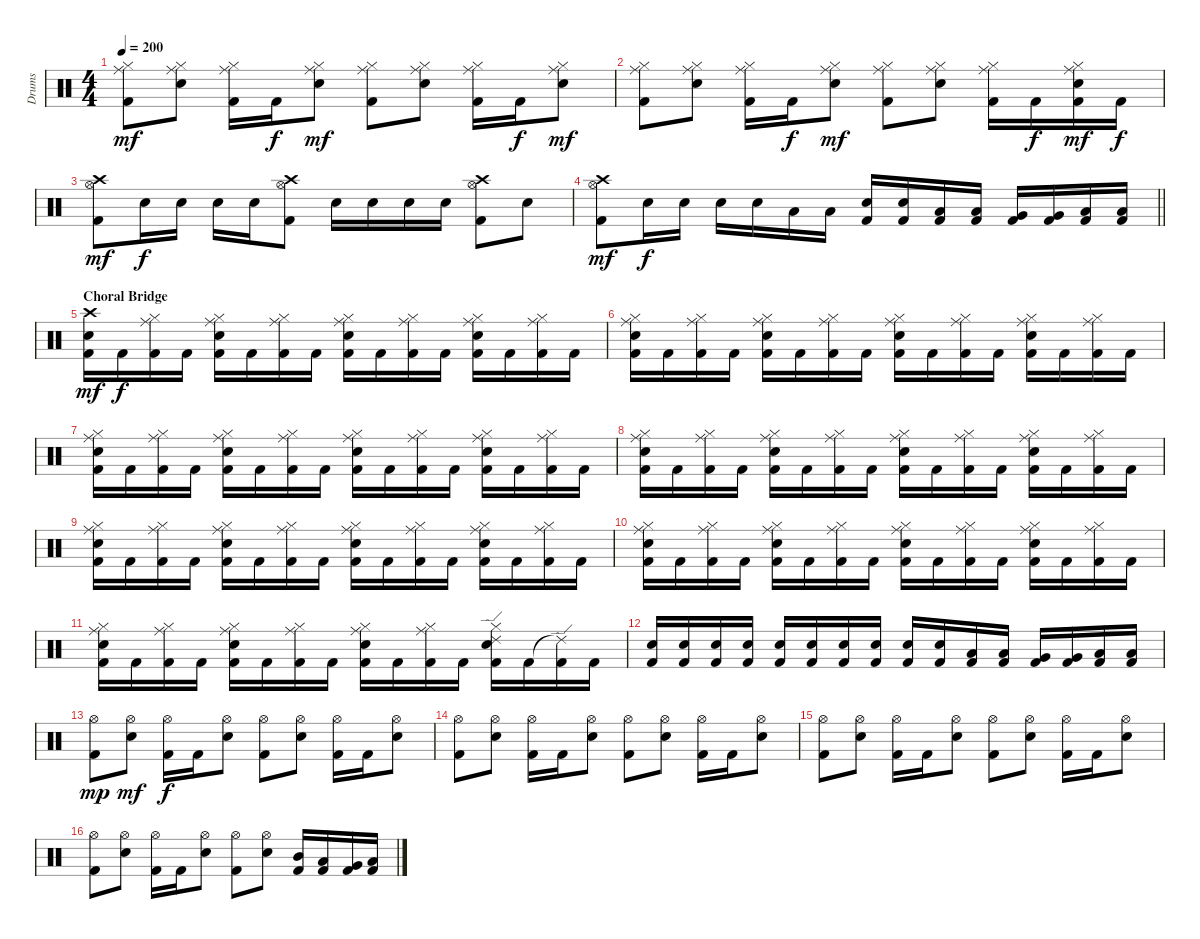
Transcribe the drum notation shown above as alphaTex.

\track ("Drums" "Drums") {instrument percussion}
\staff {score}
\articulation defaults
\ts (4 4)
\tempo 200
\clef neutral
\ks c
("Hi-Hat (closed)" "Ride (middle)" "Kick (hit) 2").8{dy mf} ("Hi-Hat (closed)" "Ride (middle)" "Snare (hit) 2").8 ("Hi-Hat (closed)" "Ride (middle)" "Kick (hit) 2").16 "Kick (hit) 2".16{dy f} ("Hi-Hat (closed)" "Ride (middle)" "Snare (hit) 2").8{dy mf} ("Hi-Hat (closed)" "Ride (middle)" "Kick (hit) 2").8 ("Hi-Hat (closed)" "Ride (middle)" "Snare (hit) 2").8 ("Hi-Hat (closed)" "Ride (middle)" "Kick (hit) 2").16 "Kick (hit) 2".16{dy f} ("Hi-Hat (closed)" "Ride (middle)" "Snare (hit) 2").8{dy mf} |
("Hi-Hat (closed)" "Ride (middle)" "Kick (hit) 2").8 ("Hi-Hat (closed)" "Ride (middle)" "Snare (hit) 2").8 ("Hi-Hat (closed)" "Ride (middle)" "Kick (hit) 2").16 "Kick (hit) 2".16{dy f} ("Hi-Hat (closed)" "Ride (middle)" "Snare (hit) 2").8{dy mf} ("Hi-Hat (closed)" "Ride (middle)" "Kick (hit) 2").8 ("Hi-Hat (closed)" "Ride (middle)" "Snare (hit) 2").8 ("Hi-Hat (closed)" "Ride (middle)" "Kick (hit) 2").16 "Kick (hit) 2".16{dy f} ("Hi-Hat (closed)" "Ride (middle)" "Snare (hit) 2" "Kick (hit) 2").16{dy mf} "Kick (hit) 2".16{dy f} |
("Crash high (hit)" "Hi-Hat (open)" "Kick (hit) 2").8{dy mf} "Snare (hit) 2".16{dy f} "Snare (hit) 2".16 "Snare (hit) 2".16 "Snare (hit) 2".16 ("Crash high (hit)" "Hi-Hat (open)" "Kick (hit) 2").8 "Snare (hit) 2".16 "Snare (hit) 2".16 "Snare (hit) 2".16 "Snare (hit) 2".16 ("Crash high (hit)" "Hi-Hat (open)" "Kick (hit) 2").8 "Snare (hit) 2".8 |
\barLineRight lightlight
("Crash high (hit)" "Hi-Hat (open)" "Kick (hit) 2").8{dy mf} "Snare (hit) 2".16{dy f} "Snare (hit) 2".16 "Snare (hit) 2".16 "Snare (hit) 2".16 "Low Tom (hit)".16 "Low Tom (hit)".16 ("Snare (hit) 2" "Kick (hit) 2").16 ("Snare (hit) 2" "Kick (hit) 2").16 ("Low Tom (hit)" "Kick (hit) 2").16 ("Low Tom (hit)" "Kick (hit) 2").16 ("Very Low Tom (hit)" "Kick (hit) 2").16 ("Very Low Tom (hit)" "Kick (hit) 2").16 ("Low Floor Tom (hit)" "Kick (hit) 2").16 ("Low Floor Tom (hit)" "Kick (hit) 2").16 |
\section ("" "Choral Bridge")
("Crash high (hit)" "Snare (hit) 2" "Kick (hit) 2").16{dy mf} "Kick (hit) 2".16{dy f} ("Hi-Hat (closed)" "Ride (middle)" "Kick (hit) 2").16 "Kick (hit) 2".16 ("Hi-Hat (closed)" "Ride (middle)" "Snare (hit) 2" "Kick (hit) 2").16 "Kick (hit) 2".16 ("Hi-Hat (closed)" "Ride (middle)" "Kick (hit) 2").16 "Kick (hit) 2".16 ("Hi-Hat (closed)" "Ride (middle)" "Snare (hit) 2" "Kick (hit) 2").16 "Kick (hit) 2".16 ("Hi-Hat (closed)" "Ride (middle)" "Kick (hit) 2").16 "Kick (hit) 2".16 ("Hi-Hat (closed)" "Ride (middle)" "Snare (hit) 2" "Kick (hit) 2").16 "Kick (hit) 2".16 ("Hi-Hat (closed)" "Ride (middle)" "Kick (hit) 2").16 "Kick (hit) 2".16 |
("Hi-Hat (closed)" "Ride (middle)" "Snare (hit) 2" "Kick (hit) 2").16 "Kick (hit) 2".16 ("Hi-Hat (closed)" "Ride (middle)" "Kick (hit) 2").16 "Kick (hit) 2".16 ("Hi-Hat (closed)" "Ride (middle)" "Snare (hit) 2" "Kick (hit) 2").16 "Kick (hit) 2".16 ("Hi-Hat (closed)" "Ride (middle)" "Kick (hit) 2").16 "Kick (hit) 2".16 ("Hi-Hat (closed)" "Ride (middle)" "Snare (hit) 2" "Kick (hit) 2").16 "Kick (hit) 2".16 ("Hi-Hat (closed)" "Ride (middle)" "Kick (hit) 2").16 "Kick (hit) 2".16 ("Hi-Hat (closed)" "Ride (middle)" "Snare (hit) 2" "Kick (hit) 2").16 "Kick (hit) 2".16 ("Hi-Hat (closed)" "Ride (middle)" "Kick (hit) 2").16 "Kick (hit) 2".16 |
("Hi-Hat (closed)" "Ride (middle)" "Snare (hit) 2" "Kick (hit) 2").16 "Kick (hit) 2".16 ("Hi-Hat (closed)" "Ride (middle)" "Kick (hit) 2").16 "Kick (hit) 2".16 ("Hi-Hat (closed)" "Ride (middle)" "Snare (hit) 2" "Kick (hit) 2").16 "Kick (hit) 2".16 ("Hi-Hat (closed)" "Ride (middle)" "Kick (hit) 2").16 "Kick (hit) 2".16 ("Hi-Hat (closed)" "Ride (middle)" "Snare (hit) 2" "Kick (hit) 2").16 "Kick (hit) 2".16 ("Hi-Hat (closed)" "Ride (middle)" "Kick (hit) 2").16 "Kick (hit) 2".16 ("Hi-Hat (closed)" "Ride (middle)" "Snare (hit) 2" "Kick (hit) 2").16 "Kick (hit) 2".16 ("Hi-Hat (closed)" "Ride (middle)" "Kick (hit) 2").16 "Kick (hit) 2".16 |
("Hi-Hat (closed)" "Ride (middle)" "Snare (hit) 2" "Kick (hit) 2").16 "Kick (hit) 2".16 ("Hi-Hat (closed)" "Ride (middle)" "Kick (hit) 2").16 "Kick (hit) 2".16 ("Hi-Hat (closed)" "Ride (middle)" "Snare (hit) 2" "Kick (hit) 2").16 "Kick (hit) 2".16 ("Hi-Hat (closed)" "Ride (middle)" "Kick (hit) 2").16 "Kick (hit) 2".16 ("Hi-Hat (closed)" "Ride (middle)" "Snare (hit) 2" "Kick (hit) 2").16 "Kick (hit) 2".16 ("Hi-Hat (closed)" "Ride (middle)" "Kick (hit) 2").16 "Kick (hit) 2".16 ("Hi-Hat (closed)" "Ride (middle)" "Snare (hit) 2" "Kick (hit) 2").16 "Kick (hit) 2".16 ("Hi-Hat (closed)" "Ride (middle)" "Kick (hit) 2").16 "Kick (hit) 2".16 |
("Hi-Hat (closed)" "Ride (middle)" "Snare (hit) 2" "Kick (hit) 2").16 "Kick (hit) 2".16 ("Hi-Hat (closed)" "Ride (middle)" "Kick (hit) 2").16 "Kick (hit) 2".16 ("Hi-Hat (closed)" "Ride (middle)" "Snare (hit) 2" "Kick (hit) 2").16 "Kick (hit) 2".16 ("Hi-Hat (closed)" "Ride (middle)" "Kick (hit) 2").16 "Kick (hit) 2".16 ("Hi-Hat (closed)" "Ride (middle)" "Snare (hit) 2" "Kick (hit) 2").16 "Kick (hit) 2".16 ("Hi-Hat (closed)" "Ride (middle)" "Kick (hit) 2").16 "Kick (hit) 2".16 ("Hi-Hat (closed)" "Ride (middle)" "Snare (hit) 2" "Kick (hit) 2").16 "Kick (hit) 2".16 ("Hi-Hat (closed)" "Ride (middle)" "Kick (hit) 2").16 "Kick (hit) 2".16 |
("Hi-Hat (closed)" "Ride (middle)" "Snare (hit) 2" "Kick (hit) 2").16 "Kick (hit) 2".16 ("Hi-Hat (closed)" "Ride (middle)" "Kick (hit) 2").16 "Kick (hit) 2".16 ("Hi-Hat (closed)" "Ride (middle)" "Snare (hit) 2" "Kick (hit) 2").16 "Kick (hit) 2".16 ("Hi-Hat (closed)" "Ride (middle)" "Kick (hit) 2").16 "Kick (hit) 2".16 ("Hi-Hat (closed)" "Ride (middle)" "Snare (hit) 2" "Kick (hit) 2").16 "Kick (hit) 2".16 ("Hi-Hat (closed)" "Ride (middle)" "Kick (hit) 2").16 "Kick (hit) 2".16 ("Hi-Hat (closed)" "Ride (middle)" "Snare (hit) 2" "Kick (hit) 2").16 "Kick (hit) 2".16 ("Hi-Hat (closed)" "Ride (middle)" "Kick (hit) 2").16 "Kick (hit) 2".16 |
("Hi-Hat (closed)" "Ride (middle)" "Snare (hit) 2" "Kick (hit) 2").16 "Kick (hit) 2".16 ("Hi-Hat (closed)" "Ride (middle)" "Kick (hit) 2").16 "Kick (hit) 2".16 ("Hi-Hat (closed)" "Ride (middle)" "Snare (hit) 2" "Kick (hit) 2").16 "Kick (hit) 2".16 ("Hi-Hat (closed)" "Ride (middle)" "Kick (hit) 2").16 "Kick (hit) 2".16 ("Hi-Hat (closed)" "Ride (middle)" "Snare (hit) 2" "Kick (hit) 2").16 "Kick (hit) 2".16 ("Hi-Hat (closed)" "Ride (middle)" "Kick (hit) 2").16 "Kick (hit) 2".16 ("Hi-Hat (closed)" "Ride (edge) 2" "Snare (hit) 2" "Kick (hit) 2").16 "Kick (hit) 2".16 ("Ride (edge) 2"{t} "Kick (hit) 2").16 "Kick (hit) 2".16 |
("Snare (hit) 2" "Kick (hit) 2").16 ("Snare (hit) 2" "Kick (hit) 2").16 ("Snare (hit) 2" "Kick (hit) 2").16 ("Snare (hit) 2" "Kick (hit) 2").16 ("Snare (hit) 2" "Kick (hit) 2").16 ("Snare (hit) 2" "Kick (hit) 2").16 ("Snare (hit) 2" "Kick (hit) 2").16 ("Snare (hit) 2" "Kick (hit) 2").16 ("Snare (hit) 2" "Kick (hit) 2").16 ("Snare (hit) 2" "Kick (hit) 2").16 ("Low Tom (hit)" "Kick (hit) 2").16 ("Low Tom (hit)" "Kick (hit) 2").16 ("Very Low Tom (hit)" "Kick (hit) 2").16 ("Very Low Tom (hit)" "Kick (hit) 2").16 ("Low Floor Tom (hit)" "Kick (hit) 2").16 ("Low Floor Tom (hit)" "Kick (hit) 2").16 |
("Hi-Hat (open)" "Kick (hit) 2").8{dy mp} ("Hi-Hat (open)" "Snare (hit) 2").8{dy mf} ("Hi-Hat (open)" "Kick (hit) 2").16{dy f} "Kick (hit) 2".16 ("Hi-Hat (open)" "Snare (hit) 2").8 ("Hi-Hat (open)" "Kick (hit) 2").8 ("Hi-Hat (open)" "Snare (hit) 2").8 ("Hi-Hat (open)" "Kick (hit) 2").16 "Kick (hit) 2".16 ("Hi-Hat (open)" "Snare (hit) 2").8 |
("Hi-Hat (open)" "Kick (hit) 2").8 ("Hi-Hat (open)" "Snare (hit) 2").8 ("Hi-Hat (open)" "Kick (hit) 2").16 "Kick (hit) 2".16 ("Hi-Hat (open)" "Snare (hit) 2").8 ("Hi-Hat (open)" "Kick (hit) 2").8 ("Hi-Hat (open)" "Snare (hit) 2").8 ("Hi-Hat (open)" "Kick (hit) 2").16 "Kick (hit) 2".16 ("Hi-Hat (open)" "Snare (hit) 2").8 |
("Hi-Hat (open)" "Kick (hit) 2").8 ("Hi-Hat (open)" "Snare (hit) 2").8 ("Hi-Hat (open)" "Kick (hit) 2").16 "Kick (hit) 2".16 ("Hi-Hat (open)" "Snare (hit) 2").8 ("Hi-Hat (open)" "Kick (hit) 2").8 ("Hi-Hat (open)" "Snare (hit) 2").8 ("Hi-Hat (open)" "Kick (hit) 2").16 "Kick (hit) 2".16 ("Hi-Hat (open)" "Snare (hit) 2").8 |
("Hi-Hat (open)" "Kick (hit) 2").8 ("Hi-Hat (open)" "Snare (hit) 2").8 ("Hi-Hat (open)" "Kick (hit) 2").16 "Kick (hit) 2".16 ("Hi-Hat (open)" "Snare (hit) 2").8 ("Hi-Hat (open)" "Kick (hit) 2").8 ("Hi-Hat (open)" "Snare (hit) 2").8 ("Mid Tom (hit)" "Kick (hit) 2").16 ("Low Tom (hit)" "Kick (hit) 2").16 ("Very Low Tom (hit)" "Kick (hit) 2").16 ("Low Floor Tom (hit)" "Kick (hit) 2").16
